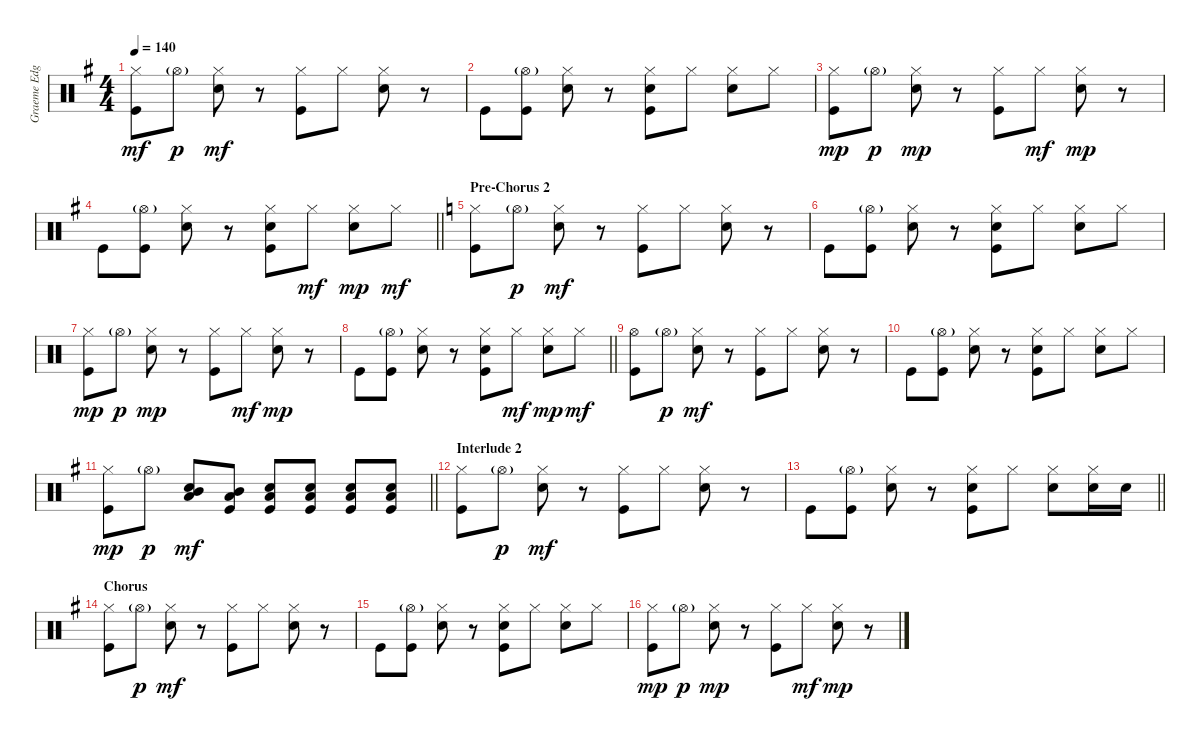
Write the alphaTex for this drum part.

\track ("Graeme Edge" "Graeme Edg") {instrument percussion}
\staff {score}
\articulation defaults
\ts (4 4)
\tempo 140
\clef neutral
\ks g
("Hi-Hat (closed)" "Kick (hit)").8{dy mf} "Hi-Hat (open)"{g}.8{dy p} ("Hi-Hat (closed)" "Snare (hit) 2").8{dy mf} r.8 ("Hi-Hat (closed)" "Kick (hit)").8 "Hi-Hat (closed)".8 ("Hi-Hat (closed)" "Snare (hit) 2").8 r.8 |
"Kick (hit)".8 ("Hi-Hat (open)"{g} "Kick (hit)").8 ("Hi-Hat (closed)" "Snare (hit) 2").8 r.8 ("Hi-Hat (closed)" "Hand Clap (hit)" "Kick (hit)").8 "Hi-Hat (closed)".8 ("Hi-Hat (closed)" "Snare (hit) 2").8 "Hi-Hat (closed)".8 |
("Hi-Hat (closed)" "Kick (hit)").8{dy mp} "Hi-Hat (open)"{g}.8{dy p} ("Hi-Hat (closed)" "Snare (hit) 2").8{dy mp} r.8 ("Hi-Hat (closed)" "Kick (hit)").8 "Hi-Hat (closed)".8{dy mf} ("Hi-Hat (closed)" "Snare (hit) 2").8{dy mp} r.8 |
\barLineRight lightlight "Kick (hit)".8
("Hi-Hat (open)"{g} "Kick (hit)").8 ("Hi-Hat (closed)" "Snare (hit) 2").8 r.8 ("Hi-Hat (closed)" "Hand Clap (hit)" "Kick (hit)").8 "Hi-Hat (closed)".8{dy mf} ("Hi-Hat (closed)" "Snare (hit) 2").8{dy mp} "Hi-Hat (closed)".8{dy mf} |
\section ("" "Pre-Chorus 2")
\ks c
("Hi-Hat (closed)" "Kick (hit)").8 "Hi-Hat (open)"{g}.8{dy p} ("Hi-Hat (closed)" "Snare (hit) 2").8{dy mf} r.8 ("Hi-Hat (closed)" "Kick (hit)").8 "Hi-Hat (closed)".8 ("Hi-Hat (closed)" "Snare (hit) 2").8 r.8 |
"Kick (hit)".8 ("Hi-Hat (open)"{g} "Kick (hit)").8 ("Hi-Hat (closed)" "Snare (hit) 2").8 r.8 ("Hi-Hat (closed)" "Hand Clap (hit)" "Kick (hit)").8 "Hi-Hat (closed)".8 ("Hi-Hat (closed)" "Snare (hit) 2").8 "Hi-Hat (closed)".8 |
("Hi-Hat (closed)" "Kick (hit)").8{dy mp} "Hi-Hat (open)"{g}.8{dy p} ("Hi-Hat (closed)" "Snare (hit) 2").8{dy mp} r.8 ("Hi-Hat (closed)" "Kick (hit)").8 "Hi-Hat (closed)".8{dy mf} ("Hi-Hat (closed)" "Snare (hit) 2").8{dy mp} r.8 |
\barLineRight lightlight "Kick (hit)".8
("Hi-Hat (open)"{g} "Kick (hit)").8 ("Hi-Hat (closed)" "Snare (hit) 2").8 r.8 ("Hi-Hat (closed)" "Hand Clap (hit)" "Kick (hit)").8 "Hi-Hat (closed)".8{dy mf} ("Hi-Hat (closed)" "Snare (hit) 2").8{dy mp} "Hi-Hat (closed)".8{dy mf} |
\section ("" "")
("Hi-Hat (open)" "Kick (hit)").8 "Hi-Hat (open)"{g}.8{dy p} ("Hi-Hat (closed)" "Snare (hit) 2").8{dy mf} r.8 ("Hi-Hat (closed)" "Kick (hit)").8 "Hi-Hat (closed)".8 ("Hi-Hat (closed)" "Snare (hit) 2").8 r.8 |
"Kick (hit)".8 ("Hi-Hat (open)"{g} "Kick (hit)").8 ("Hi-Hat (closed)" "Snare (hit) 2").8 r.8 ("Hi-Hat (closed)" "Hand Clap (hit)" "Kick (hit)").8 "Hi-Hat (closed)".8 ("Hi-Hat (closed)" "Snare (hit) 2").8 "Hi-Hat (closed)".8 |
\barLineRight lightlight
\ks g
("Hi-Hat (closed)" "Kick (hit)").8{dy mp} "Hi-Hat (open)"{g}.8{dy p} ("Mid Tom (hit)" "Low Tom (hit)" "Snare (hit) 2").8{dy mf} ("Mid Tom (hit)" "Low Tom (hit)" "Kick (hit)").8 ("Low Tom (hit)" "Snare (hit) 2" "Kick (hit)").8 ("Low Tom (hit)" "Snare (hit) 2" "Kick (hit)").8 ("Low Tom (hit)" "Snare (hit) 2" "Kick (hit)").8 ("Low Tom (hit)" "Snare (hit) 2" "Kick (hit)").8 |
\section ("" "Interlude 2")
("Hi-Hat (closed)" "Kick (hit)").8 "Hi-Hat (open)"{g}.8{dy p} ("Hi-Hat (closed)" "Snare (hit) 2").8{dy mf} r.8 ("Hi-Hat (closed)" "Kick (hit)").8 "Hi-Hat (closed)".8 ("Hi-Hat (closed)" "Snare (hit) 2").8 r.8 |
\barLineRight lightlight "Kick (hit)".8
("Hi-Hat (open)"{g} "Kick (hit)").8 ("Hi-Hat (closed)" "Snare (hit) 2").8 r.8 ("Hi-Hat (closed)" "Hand Clap (hit)" "Kick (hit)").8 "Hi-Hat (closed)".8 ("Hi-Hat (closed)" "Snare (hit) 2").8 ("Hi-Hat (closed)" "Snare (hit) 2").16 "Snare (hit) 2".16 |
\section ("" "Chorus")
("Hi-Hat (closed)" "Kick (hit)").8 "Hi-Hat (open)"{g}.8{dy p} ("Hi-Hat (closed)" "Snare (hit) 2").8{dy mf} r.8 ("Hi-Hat (closed)" "Kick (hit)").8 "Hi-Hat (closed)".8 ("Hi-Hat (closed)" "Snare (hit) 2").8 r.8 |
"Kick (hit)".8 ("Hi-Hat (open)"{g} "Kick (hit)").8 ("Hi-Hat (closed)" "Snare (hit) 2").8 r.8 ("Hi-Hat (closed)" "Hand Clap (hit)" "Kick (hit)").8 "Hi-Hat (closed)".8 ("Hi-Hat (closed)" "Snare (hit) 2").8 "Hi-Hat (closed)".8 |
("Hi-Hat (closed)" "Kick (hit)").8{dy mp} "Hi-Hat (open)"{g}.8{dy p} ("Hi-Hat (closed)" "Snare (hit) 2").8{dy mp} r.8 ("Hi-Hat (closed)" "Kick (hit)").8 "Hi-Hat (closed)".8{dy mf} ("Hi-Hat (closed)" "Snare (hit) 2").8{dy mp} r.8
